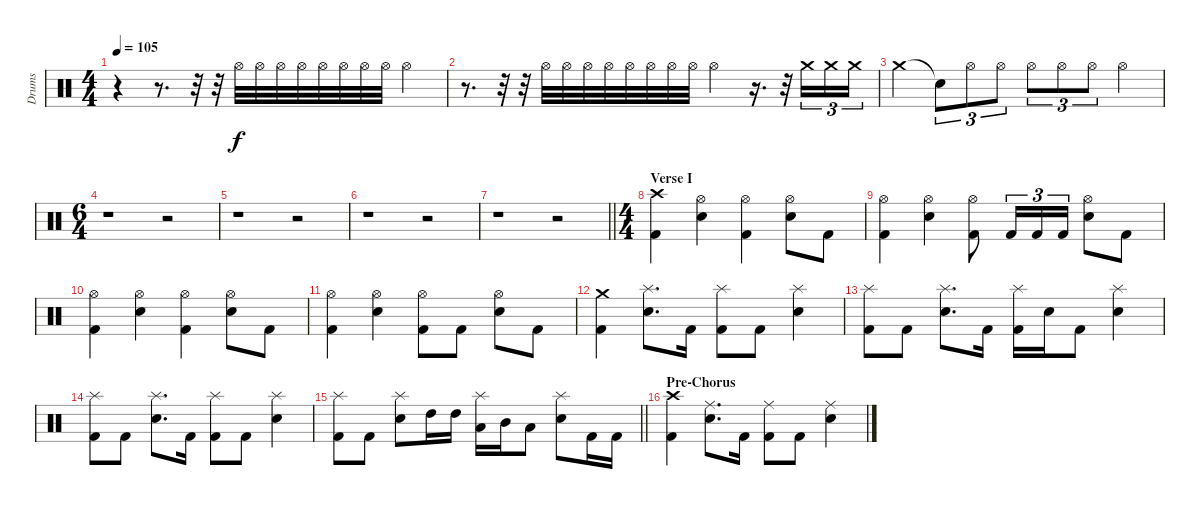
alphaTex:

\track ("Drums" "Drums") {instrument percussion}
\staff {score}
\articulation defaults
\ts (4 4)
\tempo 105
\clef neutral
\ks c
r.4{dy f} r.8{d} r.32 r.32{volume 0} "Hi-Hat (open)".32{volume 16} "Hi-Hat (open)".32 "Hi-Hat (open)".32 "Hi-Hat (open)".32 "Hi-Hat (open)".32 "Hi-Hat (open)".32 "Hi-Hat (open)".32 "Hi-Hat (open)".32 "Hi-Hat (open)".4 |
r.8{d} r.32 r.32{volume 0} "Hi-Hat (open)".32{volume 16} "Hi-Hat (open)".32 "Hi-Hat (open)".32 "Hi-Hat (open)".32 "Hi-Hat (open)".32 "Hi-Hat (open)".32 "Hi-Hat (open)".32 "Hi-Hat (open)".32 "Hi-Hat (open)".4 r.16{d} r.32{volume 0} "Crash medium (hit)".16{tu (3 2) volume 16} "Crash medium (hit)".16{tu (3 2)} "Crash medium (hit)".16{tu (3 2)} |
"Crash medium (hit)".4 "Snare (hit)"{t}.8{tu (3 2)} "Hi-Hat (open)".8{tu (3 2)} "Hi-Hat (open)".8{tu (3 2)} "Hi-Hat (open)".8{tu (3 2)} "Hi-Hat (open)".8{tu (3 2)} "Hi-Hat (open)".8{tu (3 2)} "Hi-Hat (open)".4 |
\ts (6 4)
r.1 r.2 |
r.1 r.2 |
r.1 r.2 |
\barLineRight lightlight
r.1 r.2 |
\ts (4 4)
\section ("" "Verse I")
("Crash high (hit)" "Kick (hit) 2").4 ("Hi-Hat (open)" "Snare (hit) 2").4 ("Hi-Hat (open)" "Kick (hit) 2").4 ("Hi-Hat (open)" "Snare (hit) 2").8 "Kick (hit) 2".8 |
("Hi-Hat (open)" "Kick (hit) 2").4 ("Hi-Hat (open)" "Snare (hit) 2").4 ("Hi-Hat (open)" "Kick (hit) 2").8 "Kick (hit) 2".16{tu (3 2)} "Kick (hit) 2".16{tu (3 2)} "Kick (hit) 2".16{tu (3 2)} ("Hi-Hat (open)" "Snare (hit) 2").8 "Kick (hit) 2".8 |
("Hi-Hat (open)" "Kick (hit) 2").4 ("Hi-Hat (open)" "Snare (hit) 2").4 ("Hi-Hat (open)" "Kick (hit) 2").4 ("Hi-Hat (open)" "Snare (hit) 2").8 "Kick (hit) 2".8 |
("Hi-Hat (open)" "Kick (hit) 2").4 ("Hi-Hat (open)" "Snare (hit) 2").4 ("Hi-Hat (open)" "Kick (hit) 2").8 "Kick (hit) 2".8 ("Hi-Hat (open)" "Snare (hit) 2").8 "Kick (hit) 2".8 |
("Crash medium (hit)" "Kick (hit) 2").4 ("Splash (hit)" "Snare (hit) 2").8{d} "Kick (hit) 2".16 ("Splash (hit)" "Kick (hit) 2").8 "Kick (hit) 2".8 ("Splash (hit)" "Snare (hit) 2").4 |
("Splash (hit)" "Kick (hit) 2").8 "Kick (hit) 2".8 ("Splash (hit)" "Snare (hit) 2").8{d} "Kick (hit) 2".16 ("Splash (hit)" "Kick (hit) 2").16 "Snare (hit) 2".16 "Kick (hit) 2".8 ("Splash (hit)" "Snare (hit) 2").4 |
("Splash (hit)" "Kick (hit) 2").8 "Kick (hit) 2".8 ("Splash (hit)" "Snare (hit) 2").8{d} "Kick (hit) 2".16 ("Splash (hit)" "Kick (hit) 2").8 "Kick (hit) 2".8 ("Splash (hit)" "Snare (hit) 2").4 |
\barLineRight lightlight
("Splash (hit)" "Kick (hit) 2").8 "Kick (hit) 2".8 ("Splash (hit)" "Snare (hit) 2").8 "High Tom (hit)".16 "High Tom (hit)".16 ("Splash (hit)" "Low Tom (hit)").16 "Mid Tom (hit)".16 "Low Tom (hit)".8 ("Splash (hit)" "Snare (hit) 2").8 "Kick (hit) 2".16 "Kick (hit) 2".16 |
\section ("" "Pre-Chorus")
("Crash high (hit)" "Kick (hit) 2").4 ("Ride (middle)" "Snare (hit) 2").8{d} "Kick (hit) 2".16 ("Ride (middle)" "Kick (hit) 2").8 "Kick (hit) 2".8 ("Ride (middle)" "Snare (hit) 2").4
